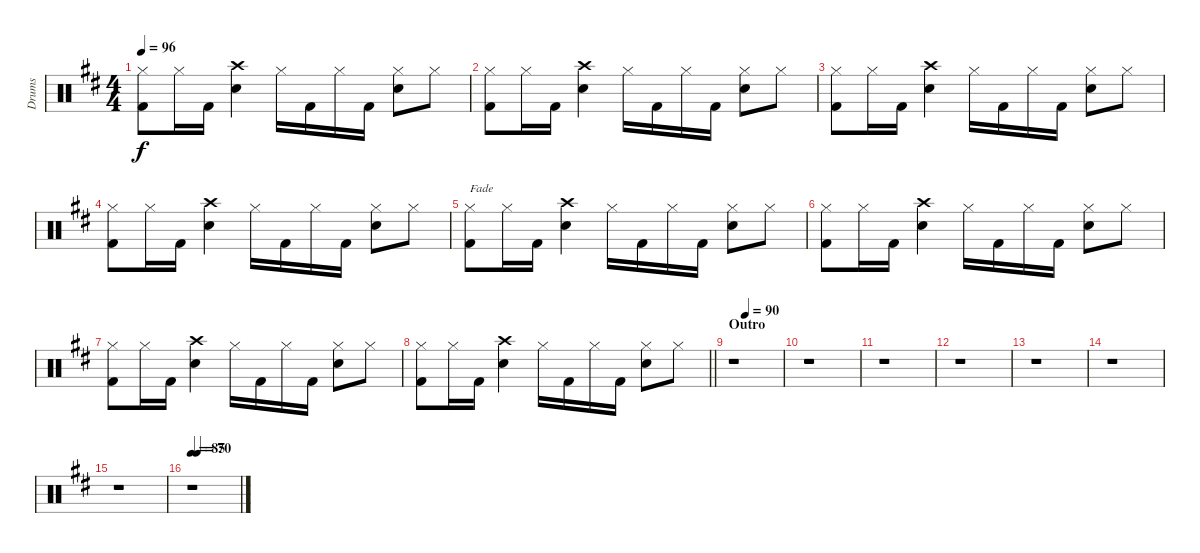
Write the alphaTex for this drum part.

\track ("Drums" "Drums") {instrument percussion}
\staff {score}
\articulation defaults
\ts (4 4)
\tempo 96
\clef neutral
\ks d
("Hi-Hat (closed)" "Kick (hit) 2").8{dy f} "Hi-Hat (closed)".16 "Kick (hit) 2".16 ("Crash high (hit)" "Electric Snare (hit)").4 "Hi-Hat (closed)".16 "Kick (hit) 2".16 "Hi-Hat (closed)".16 "Kick (hit) 2".16 ("Hi-Hat (closed)" "Electric Snare (hit)").8 "Hi-Hat (closed)".8 |
("Hi-Hat (closed)" "Kick (hit) 2").8 "Hi-Hat (closed)".16 "Kick (hit) 2".16 ("Crash high (hit)" "Electric Snare (hit)").4 "Hi-Hat (closed)".16 "Kick (hit) 2".16 "Hi-Hat (closed)".16 "Kick (hit) 2".16 ("Hi-Hat (closed)" "Electric Snare (hit)").8 "Hi-Hat (closed)".8 |
("Hi-Hat (closed)" "Kick (hit) 2").8 "Hi-Hat (closed)".16 "Kick (hit) 2".16 ("Crash high (hit)" "Electric Snare (hit)").4 "Hi-Hat (closed)".16 "Kick (hit) 2".16 "Hi-Hat (closed)".16 "Kick (hit) 2".16 ("Hi-Hat (closed)" "Electric Snare (hit)").8 "Hi-Hat (closed)".8 |
("Hi-Hat (closed)" "Kick (hit) 2").8 "Hi-Hat (closed)".16 "Kick (hit) 2".16 ("Crash high (hit)" "Electric Snare (hit)").4 "Hi-Hat (closed)".16 "Kick (hit) 2".16 "Hi-Hat (closed)".16 "Kick (hit) 2".16 ("Hi-Hat (closed)" "Electric Snare (hit)").8 "Hi-Hat (closed)".8 |
("Hi-Hat (closed)" "Kick (hit) 2").8{txt "Fade" volume 9} "Hi-Hat (closed)".16 "Kick (hit) 2".16 ("Crash high (hit)" "Electric Snare (hit)").4 "Hi-Hat (closed)".16 "Kick (hit) 2".16 "Hi-Hat (closed)".16 "Kick (hit) 2".16 ("Hi-Hat (closed)" "Electric Snare (hit)").8 "Hi-Hat (closed)".8 |
("Hi-Hat (closed)" "Kick (hit) 2").8 "Hi-Hat (closed)".16 "Kick (hit) 2".16 ("Crash high (hit)" "Electric Snare (hit)").4 "Hi-Hat (closed)".16 "Kick (hit) 2".16 "Hi-Hat (closed)".16 "Kick (hit) 2".16 ("Hi-Hat (closed)" "Electric Snare (hit)").8 "Hi-Hat (closed)".8 |
("Hi-Hat (closed)" "Kick (hit) 2").8{volume 0} "Hi-Hat (closed)".16 "Kick (hit) 2".16 ("Crash high (hit)" "Electric Snare (hit)").4 "Hi-Hat (closed)".16 "Kick (hit) 2".16 "Hi-Hat (closed)".16 "Kick (hit) 2".16 ("Hi-Hat (closed)" "Electric Snare (hit)").8 "Hi-Hat (closed)".8 |
\barLineRight lightlight
("Hi-Hat (closed)" "Kick (hit) 2").8 "Hi-Hat (closed)".16 "Kick (hit) 2".16 ("Crash high (hit)" "Electric Snare (hit)").4 "Hi-Hat (closed)".16 "Kick (hit) 2".16 "Hi-Hat (closed)".16 "Kick (hit) 2".16 ("Hi-Hat (closed)" "Electric Snare (hit)").8 "Hi-Hat (closed)".8 |
\section ("" "Outro")
\tempo (90 0.25)
r.1 |
r.1 |
r.1 |
r.1 |
r.1 |
r.1 |
r.1 |
\tempo 85
\tempo (70 0.125)
r.1
